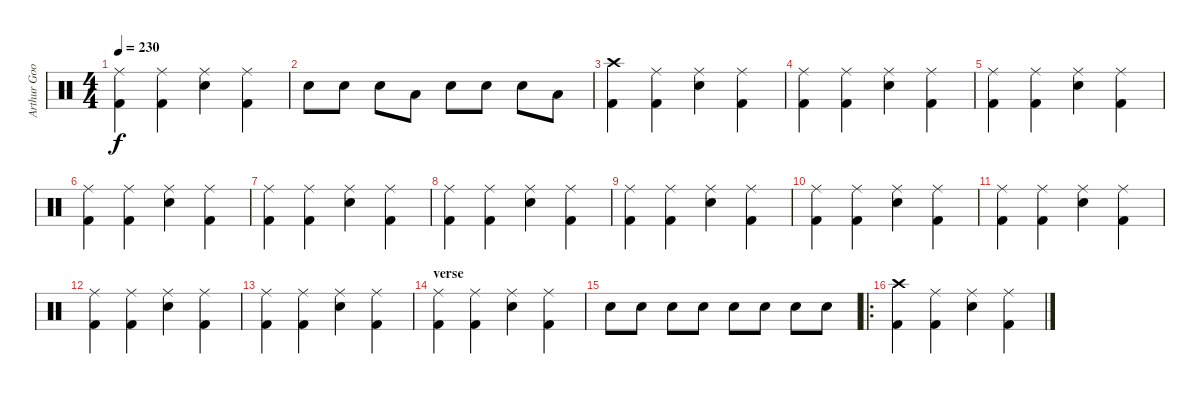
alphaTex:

\track ("Arthur Googy" "Arthur Goo") {instrument percussion}
\staff {score}
\articulation defaults
\ts (4 4)
\tempo 230
\clef neutral
\ks c
("Ride (middle)" "Kick (hit) 2").4{dy f} ("Ride (middle)" "Kick (hit) 2").4 ("Ride (middle)" "Electric Snare (hit)").4 ("Ride (middle)" "Kick (hit) 2").4 |
"Electric Snare (hit)".8 "Electric Snare (hit)".8 "Electric Snare (hit)".8 "Low Tom (hit)".8 "Electric Snare (hit)".8 "Electric Snare (hit)".8 "Electric Snare (hit)".8 "Low Tom (hit)".8 |
("Crash high (hit)" "Kick (hit) 2").4 ("Ride (middle)" "Kick (hit) 2").4 ("Ride (middle)" "Electric Snare (hit)").4 ("Ride (middle)" "Kick (hit) 2").4 |
("Ride (middle)" "Kick (hit) 2").4 ("Ride (middle)" "Kick (hit) 2").4 ("Ride (middle)" "Electric Snare (hit)").4 ("Ride (middle)" "Kick (hit) 2").4 |
("Ride (middle)" "Kick (hit) 2").4 ("Ride (middle)" "Kick (hit) 2").4 ("Ride (middle)" "Electric Snare (hit)").4 ("Ride (middle)" "Kick (hit) 2").4 |
("Ride (middle)" "Kick (hit) 2").4 ("Ride (middle)" "Kick (hit) 2").4 ("Ride (middle)" "Electric Snare (hit)").4 ("Ride (middle)" "Kick (hit) 2").4 |
("Ride (middle)" "Kick (hit) 2").4 ("Ride (middle)" "Kick (hit) 2").4 ("Ride (middle)" "Electric Snare (hit)").4 ("Ride (middle)" "Kick (hit) 2").4 |
("Ride (middle)" "Kick (hit) 2").4 ("Ride (middle)" "Kick (hit) 2").4 ("Ride (middle)" "Electric Snare (hit)").4 ("Ride (middle)" "Kick (hit) 2").4 |
("Ride (middle)" "Kick (hit) 2").4 ("Ride (middle)" "Kick (hit) 2").4 ("Ride (middle)" "Electric Snare (hit)").4 ("Ride (middle)" "Kick (hit) 2").4 |
("Ride (middle)" "Kick (hit) 2").4 ("Ride (middle)" "Kick (hit) 2").4 ("Ride (middle)" "Electric Snare (hit)").4 ("Ride (middle)" "Kick (hit) 2").4 |
("Ride (middle)" "Kick (hit) 2").4 ("Ride (middle)" "Kick (hit) 2").4 ("Ride (middle)" "Electric Snare (hit)").4 ("Ride (middle)" "Kick (hit) 2").4 |
("Ride (middle)" "Kick (hit) 2").4 ("Ride (middle)" "Kick (hit) 2").4 ("Ride (middle)" "Electric Snare (hit)").4 ("Ride (middle)" "Kick (hit) 2").4 |
("Ride (middle)" "Kick (hit) 2").4 ("Ride (middle)" "Kick (hit) 2").4 ("Ride (middle)" "Electric Snare (hit)").4 ("Ride (middle)" "Kick (hit) 2").4 |
\section ("" "verse")
("Ride (middle)" "Kick (hit) 2").4 ("Ride (middle)" "Kick (hit) 2").4 ("Ride (middle)" "Electric Snare (hit)").4 ("Ride (middle)" "Kick (hit) 2").4 |
"Electric Snare (hit)".8 "Electric Snare (hit)".8 "Electric Snare (hit)".8 "Electric Snare (hit)".8 "Electric Snare (hit)".8 "Electric Snare (hit)".8 "Electric Snare (hit)".8 "Electric Snare (hit)".8 |
\ro
("Crash high (hit)" "Kick (hit) 2").4 ("Ride (middle)" "Kick (hit) 2").4 ("Ride (middle)" "Electric Snare (hit)").4 ("Ride (middle)" "Kick (hit) 2").4
